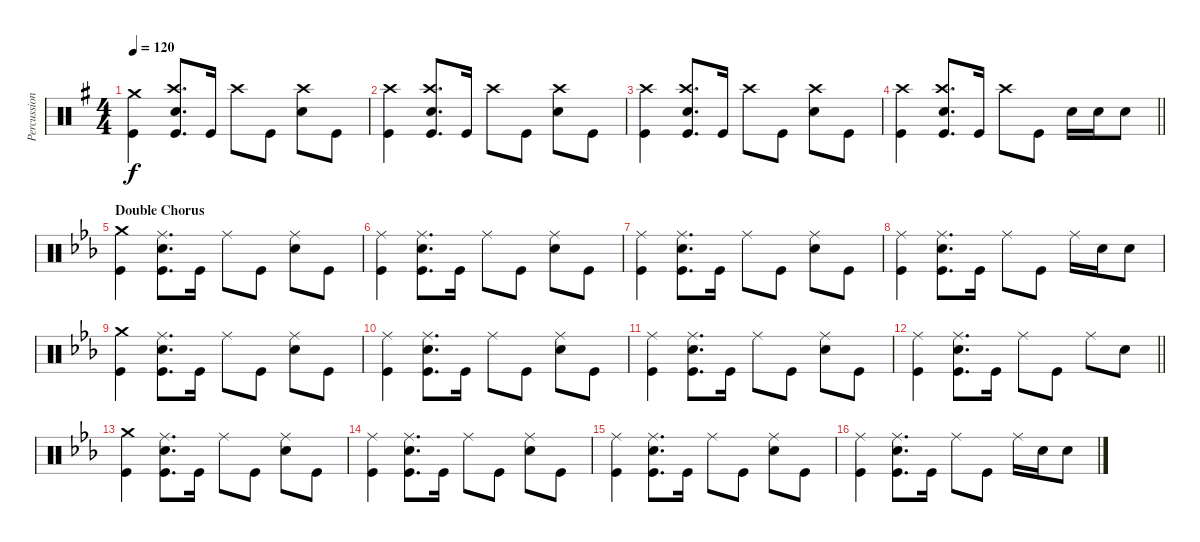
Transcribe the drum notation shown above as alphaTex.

\track ("Percussion" "Percussion") {instrument percussion}
\staff {score}
\articulation defaults
\ts (4 4)
\tempo 120
\clef neutral
\ks g
("Crash medium (hit)" "Kick (hit)").4{dy f} ("Crash high (hit)" "Electric Snare (hit)" "Kick (hit)").8{d} "Kick (hit)".16 "Crash high (hit)".8 "Kick (hit)".8 ("Crash high (hit)" "Electric Snare (hit)").8 "Kick (hit)".8 |
("Crash high (hit)" "Kick (hit)").4 ("Crash high (hit)" "Electric Snare (hit)" "Kick (hit)").8{d} "Kick (hit)".16 "Crash high (hit)".8 "Kick (hit)".8 ("Crash high (hit)" "Electric Snare (hit)").8 "Kick (hit)".8 |
("Crash high (hit)" "Kick (hit)").4 ("Crash high (hit)" "Electric Snare (hit)" "Kick (hit)").8{d} "Kick (hit)".16 "Crash high (hit)".8 "Kick (hit)".8 ("Crash high (hit)" "Electric Snare (hit)").8 "Kick (hit)".8 |
\barLineRight lightlight
("Crash high (hit)" "Kick (hit)").4 ("Crash high (hit)" "Electric Snare (hit)" "Kick (hit)").8{d} "Kick (hit)".16 "Crash high (hit)".8 "Kick (hit)".8 "Electric Snare (hit)".16 "Electric Snare (hit)".16 "Electric Snare (hit)".8 |
\section ("" "Double Chorus")
\ks eb
("Crash medium (hit)" "Kick (hit)").4 ("Ride (middle)" "Electric Snare (hit)" "Kick (hit)").8{d} "Kick (hit)".16 "Ride (middle)".8 "Kick (hit)".8 ("Ride (middle)" "Electric Snare (hit)").8 "Kick (hit)".8 |
("Ride (middle)" "Kick (hit)").4 ("Ride (middle)" "Electric Snare (hit)" "Kick (hit)").8{d} "Kick (hit)".16 "Ride (middle)".8 "Kick (hit)".8 ("Ride (middle)" "Electric Snare (hit)").8 "Kick (hit)".8 |
("Ride (middle)" "Kick (hit)").4 ("Ride (middle)" "Electric Snare (hit)" "Kick (hit)").8{d} "Kick (hit)".16 "Ride (middle)".8 "Kick (hit)".8 ("Ride (middle)" "Electric Snare (hit)").8 "Kick (hit)".8 |
("Ride (middle)" "Kick (hit)").4 ("Ride (middle)" "Electric Snare (hit)" "Kick (hit)").8{d} "Kick (hit)".16 "Ride (middle)".8 "Kick (hit)".8 "Ride (middle)".16 "Electric Snare (hit)".16 "Electric Snare (hit)".8 |
("Crash medium (hit)" "Kick (hit)").4 ("Ride (middle)" "Electric Snare (hit)" "Kick (hit)").8{d} "Kick (hit)".16 "Ride (middle)".8 "Kick (hit)".8 ("Ride (middle)" "Electric Snare (hit)").8 "Kick (hit)".8 |
("Ride (middle)" "Kick (hit)").4 ("Ride (middle)" "Electric Snare (hit)" "Kick (hit)").8{d} "Kick (hit)".16 "Ride (middle)".8 "Kick (hit)".8 ("Ride (middle)" "Electric Snare (hit)").8 "Kick (hit)".8 |
("Ride (middle)" "Kick (hit)").4 ("Ride (middle)" "Electric Snare (hit)" "Kick (hit)").8{d} "Kick (hit)".16 "Ride (middle)".8 "Kick (hit)".8 ("Ride (middle)" "Electric Snare (hit)").8 "Kick (hit)".8 |
\barLineRight lightlight
("Ride (middle)" "Kick (hit)").4 ("Ride (middle)" "Electric Snare (hit)" "Kick (hit)").8{d} "Kick (hit)".16 "Ride (middle)".8 "Kick (hit)".8 "Ride (middle)".8 "Electric Snare (hit)".8 |
("Crash medium (hit)" "Kick (hit)").4 ("Ride (middle)" "Electric Snare (hit)" "Kick (hit)").8{d} "Kick (hit)".16 "Ride (middle)".8 "Kick (hit)".8 ("Ride (middle)" "Electric Snare (hit)").8 "Kick (hit)".8 |
("Ride (middle)" "Kick (hit)").4 ("Ride (middle)" "Electric Snare (hit)" "Kick (hit)").8{d} "Kick (hit)".16 "Ride (middle)".8 "Kick (hit)".8 ("Ride (middle)" "Electric Snare (hit)").8 "Kick (hit)".8 |
("Ride (middle)" "Kick (hit)").4 ("Ride (middle)" "Electric Snare (hit)" "Kick (hit)").8{d} "Kick (hit)".16 "Ride (middle)".8 "Kick (hit)".8 ("Ride (middle)" "Electric Snare (hit)").8 "Kick (hit)".8 |
("Ride (middle)" "Kick (hit)").4 ("Ride (middle)" "Electric Snare (hit)" "Kick (hit)").8{d} "Kick (hit)".16 "Ride (middle)".8 "Kick (hit)".8 "Ride (middle)".16 "Electric Snare (hit)".16 "Electric Snare (hit)".8
